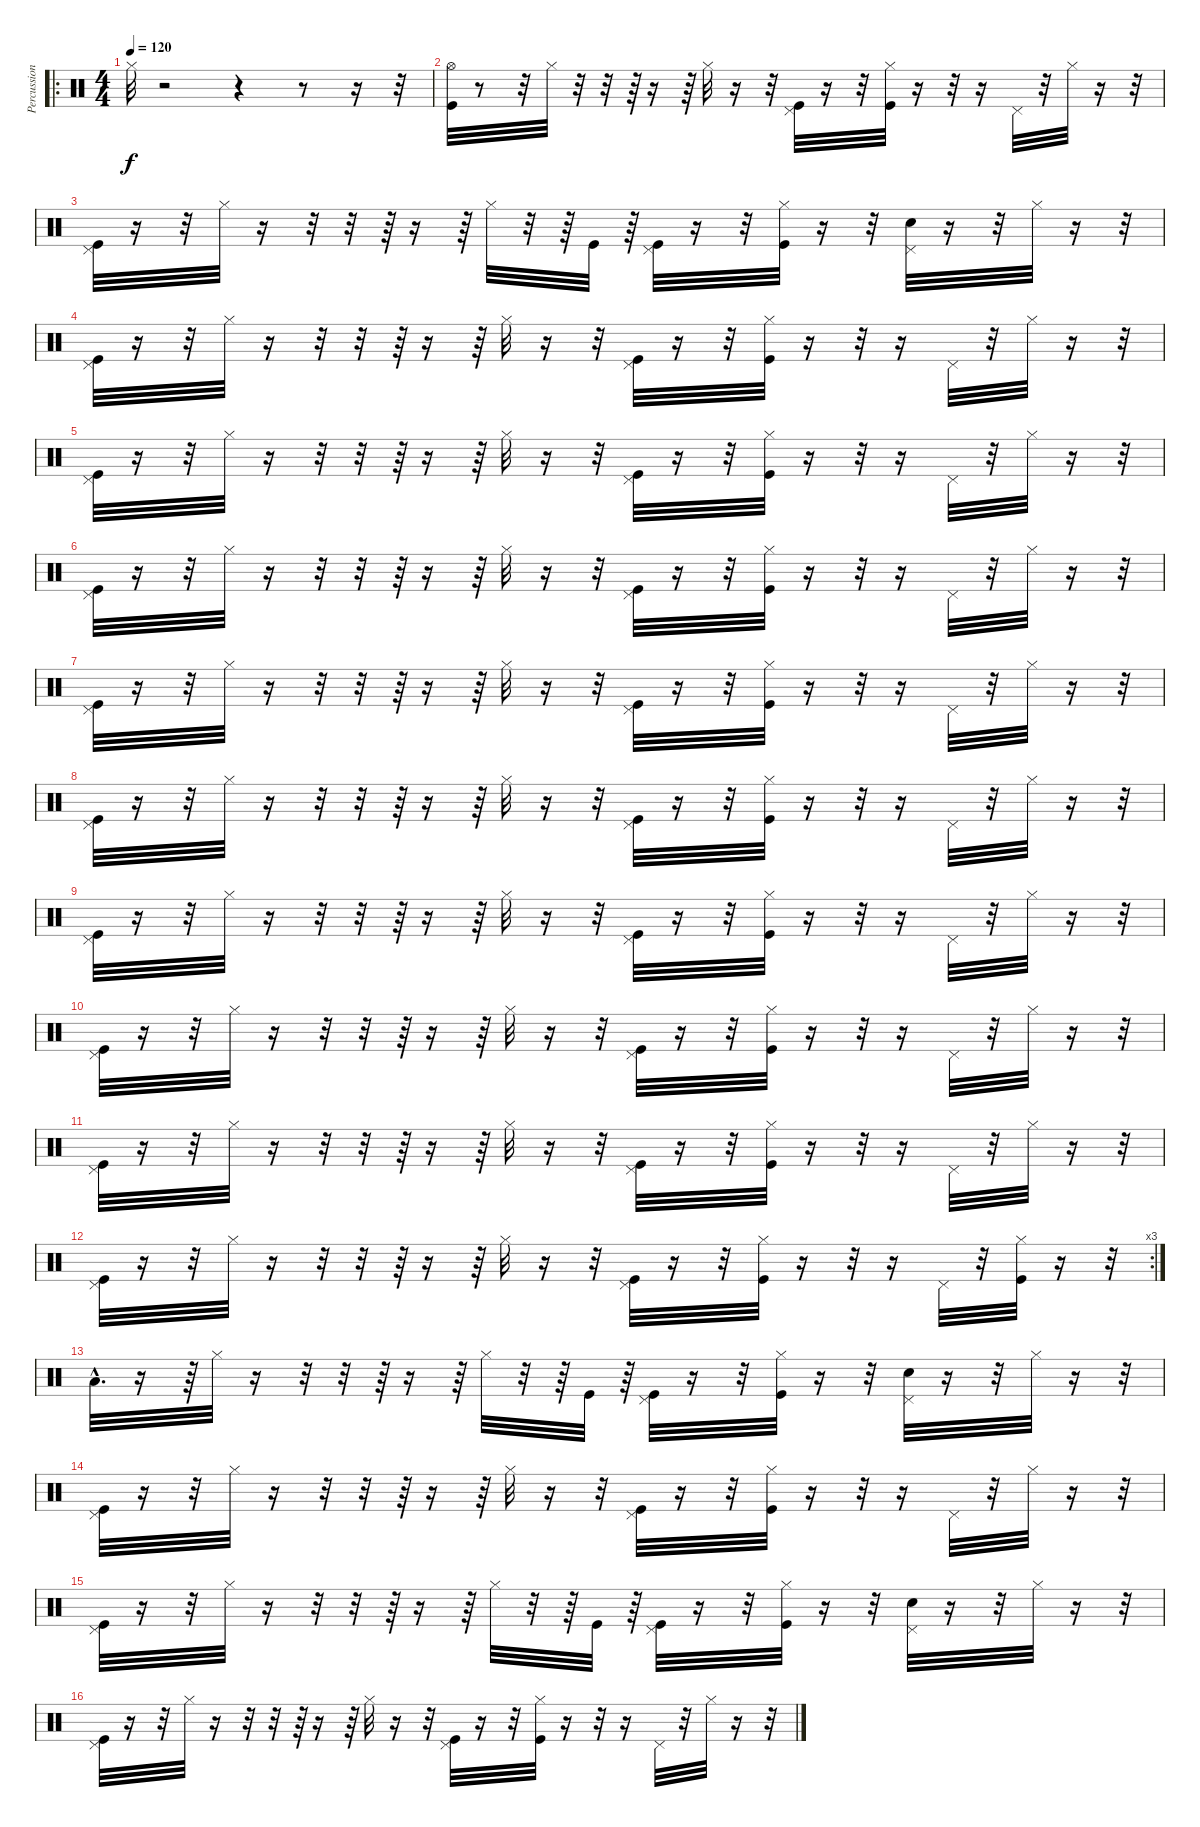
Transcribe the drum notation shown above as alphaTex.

\track ("Percussion" "Percussion") {instrument percussion}
\staff {score}
\articulation defaults
\ro
\ts (4 4)
\tempo 120
\clef neutral
\ks c "Hi-Hat (closed)".32{dy f}
r.2 r.4 r.8 r.16 r.32 |
("Hi-Hat (open)" "Kick (hit)").32 r.8 r.32 "Hi-Hat (closed)".32 r.32 r.32 r.64 r.16 r.64 "Hi-Hat (closed)".32 r.16 r.32 ("Kick (hit)" "Pedal Hi-Hat (hit)").32 r.16 r.32 ("Kick (hit)" "Hi-Hat (closed)").32 r.16 r.32 r.16 "Pedal Hi-Hat (hit)".32 r.32 "Hi-Hat (closed)".32 r.16 r.32 |
("Pedal Hi-Hat (hit)" "Kick (hit)").32 r.16 r.32 "Hi-Hat (closed)".32 r.16 r.32 r.32 r.64 r.16 r.64 "Hi-Hat (closed)".32 r.32 r.64 "Kick (hit)".32 r.64 ("Kick (hit)" "Pedal Hi-Hat (hit)").32 r.16 r.32 ("Kick (hit)" "Hi-Hat (closed)").32 r.16 r.32 ("Snare (hit) 2" "Pedal Hi-Hat (hit)").32 r.16 r.32 "Hi-Hat (closed)".32 r.16 r.32 |
("Pedal Hi-Hat (hit)" "Kick (hit)").32 r.16 r.32 "Hi-Hat (closed)".32 r.16 r.32 r.32 r.64 r.16 r.64 "Hi-Hat (closed)".32 r.16 r.32 ("Kick (hit)" "Pedal Hi-Hat (hit)").32 r.16 r.32 ("Kick (hit)" "Hi-Hat (closed)").32 r.16 r.32 r.16 "Pedal Hi-Hat (hit)".32 r.32 "Hi-Hat (closed)".32 r.16 r.32 |
("Pedal Hi-Hat (hit)" "Kick (hit)").32 r.16 r.32 "Hi-Hat (closed)".32 r.16 r.32 r.32 r.64 r.16 r.64 "Hi-Hat (closed)".32 r.16 r.32 ("Kick (hit)" "Pedal Hi-Hat (hit)").32 r.16 r.32 ("Kick (hit)" "Hi-Hat (closed)").32 r.16 r.32 r.16 "Pedal Hi-Hat (hit)".32 r.32 "Hi-Hat (closed)".32 r.16 r.32 |
("Pedal Hi-Hat (hit)" "Kick (hit)").32 r.16 r.32 "Hi-Hat (closed)".32 r.16 r.32 r.32 r.64 r.16 r.64 "Hi-Hat (closed)".32 r.16 r.32 ("Kick (hit)" "Pedal Hi-Hat (hit)").32 r.16 r.32 ("Kick (hit)" "Hi-Hat (closed)").32 r.16 r.32 r.16 "Pedal Hi-Hat (hit)".32 r.32 "Hi-Hat (closed)".32 r.16 r.32 |
("Pedal Hi-Hat (hit)" "Kick (hit)").32 r.16 r.32 "Hi-Hat (closed)".32 r.16 r.32 r.32 r.64 r.16 r.64 "Hi-Hat (closed)".32 r.16 r.32 ("Kick (hit)" "Pedal Hi-Hat (hit)").32 r.16 r.32 ("Kick (hit)" "Hi-Hat (closed)").32 r.16 r.32 r.16 "Pedal Hi-Hat (hit)".32 r.32 "Hi-Hat (closed)".32 r.16 r.32 |
("Pedal Hi-Hat (hit)" "Kick (hit)").32 r.16 r.32 "Hi-Hat (closed)".32 r.16 r.32 r.32 r.64 r.16 r.64 "Hi-Hat (closed)".32 r.16 r.32 ("Kick (hit)" "Pedal Hi-Hat (hit)").32 r.16 r.32 ("Kick (hit)" "Hi-Hat (closed)").32 r.16 r.32 r.16 "Pedal Hi-Hat (hit)".32 r.32 "Hi-Hat (closed)".32 r.16 r.32 |
("Pedal Hi-Hat (hit)" "Kick (hit)").32 r.16 r.32 "Hi-Hat (closed)".32 r.16 r.32 r.32 r.64 r.16 r.64 "Hi-Hat (closed)".32 r.16 r.32 ("Kick (hit)" "Pedal Hi-Hat (hit)").32 r.16 r.32 ("Kick (hit)" "Hi-Hat (closed)").32 r.16 r.32 r.16 "Pedal Hi-Hat (hit)".32 r.32 "Hi-Hat (closed)".32 r.16 r.32 |
("Pedal Hi-Hat (hit)" "Kick (hit)").32 r.16 r.32 "Hi-Hat (closed)".32 r.16 r.32 r.32 r.64 r.16 r.64 "Hi-Hat (closed)".32 r.16 r.32 ("Kick (hit)" "Pedal Hi-Hat (hit)").32 r.16 r.32 ("Kick (hit)" "Hi-Hat (closed)").32 r.16 r.32 r.16 "Pedal Hi-Hat (hit)".32 r.32 "Hi-Hat (closed)".32 r.16 r.32 |
("Pedal Hi-Hat (hit)" "Kick (hit)").32 r.16 r.32 "Hi-Hat (closed)".32 r.16 r.32 r.32 r.64 r.16 r.64 "Hi-Hat (closed)".32 r.16 r.32 ("Kick (hit)" "Pedal Hi-Hat (hit)").32 r.16 r.32 ("Kick (hit)" "Hi-Hat (closed)").32 r.16 r.32 r.16 "Pedal Hi-Hat (hit)".32 r.32 "Hi-Hat (closed)".32 r.16 r.32 |
\rc 3
("Pedal Hi-Hat (hit)" "Kick (hit)").32 r.16 r.32 "Hi-Hat (closed)".32 r.16 r.32 r.32 r.64 r.16 r.64 "Hi-Hat (closed)".32 r.16 r.32 ("Kick (hit)" "Pedal Hi-Hat (hit)").32 r.16 r.32 ("Kick (hit)" "Hi-Hat (closed)").32 r.16 r.32 r.16 "Pedal Hi-Hat (hit)".32 r.32 ("Kick (hit)" "Hi-Hat (closed)").32 r.16 r.32 |
"Low Tom (hit)"{hac}.32{d} r.16 r.64 "Hi-Hat (closed)".32 r.16 r.32 r.32 r.64 r.16 r.64 "Hi-Hat (closed)".32 r.32 r.64 "Kick (hit)".32 r.64 ("Kick (hit)" "Pedal Hi-Hat (hit)").32 r.16 r.32 ("Kick (hit)" "Hi-Hat (closed)").32 r.16 r.32 ("Snare (hit) 2" "Pedal Hi-Hat (hit)").32 r.16 r.32 "Hi-Hat (closed)".32 r.16 r.32 |
("Pedal Hi-Hat (hit)" "Kick (hit)").32 r.16 r.32 "Hi-Hat (closed)".32 r.16 r.32 r.32 r.64 r.16 r.64 "Hi-Hat (closed)".32 r.16 r.32 ("Kick (hit)" "Pedal Hi-Hat (hit)").32 r.16 r.32 ("Kick (hit)" "Hi-Hat (closed)").32 r.16 r.32 r.16 "Pedal Hi-Hat (hit)".32 r.32 "Hi-Hat (closed)".32 r.16 r.32 |
("Pedal Hi-Hat (hit)" "Kick (hit)").32 r.16 r.32 "Hi-Hat (closed)".32 r.16 r.32 r.32 r.64 r.16 r.64 "Hi-Hat (closed)".32 r.32 r.64 "Kick (hit)".32 r.64 ("Kick (hit)" "Pedal Hi-Hat (hit)").32 r.16 r.32 ("Kick (hit)" "Hi-Hat (closed)").32 r.16 r.32 ("Snare (hit) 2" "Pedal Hi-Hat (hit)").32 r.16 r.32 "Hi-Hat (closed)".32 r.16 r.32 |
("Pedal Hi-Hat (hit)" "Kick (hit)").32 r.16 r.32 "Hi-Hat (closed)".32 r.16 r.32 r.32 r.64 r.16 r.64 "Hi-Hat (closed)".32 r.16 r.32 ("Kick (hit)" "Pedal Hi-Hat (hit)").32 r.16 r.32 ("Kick (hit)" "Hi-Hat (closed)").32 r.16 r.32 r.16 "Pedal Hi-Hat (hit)".32 r.32 "Hi-Hat (closed)".32 r.16 r.32
